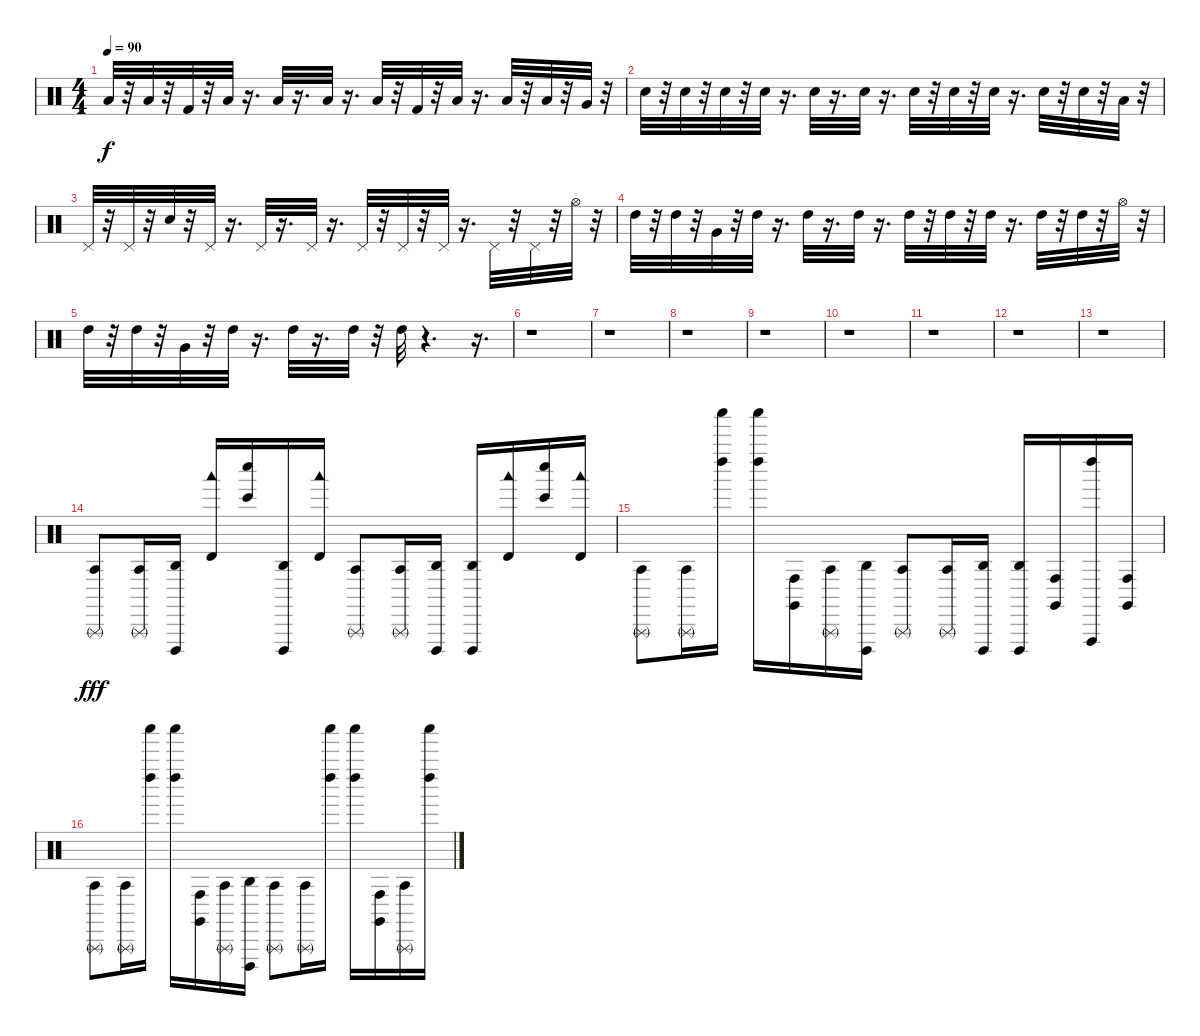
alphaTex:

\track "" {instrument percussion}
\staff {score}
\articulation defaults
\ts (4 4)
\tempo 90
\clef neutral
\ks c "Low Floor Tom (hit)".32{dy f}
r.32 "Low Floor Tom (hit)".32 r.32 "Kick (hit) 2".32 r.32 "Low Floor Tom (hit)".32 r.16{d} "Low Floor Tom (hit)".32 r.16{d} "Low Floor Tom (hit)".32 r.16{d} "Low Floor Tom (hit)".32 r.32 "Kick (hit) 2".32 r.32 "Low Floor Tom (hit)".32 r.16{d} "Low Floor Tom (hit)".32 r.32 "Low Floor Tom (hit)".32 r.32 "Very Low Tom (hit)".32 r.32 |
"Hand Clap (hit)".32 r.32 "Hand Clap (hit)".32 r.32 "Metronome (bell)".32 r.32 "Hand Clap (hit)".32 r.16{d} "Hand Clap (hit)".32 r.16{d} "Hand Clap (hit)".32 r.16{d} "Hand Clap (hit)".32 r.32 "Hand Clap (hit)".32 r.32 "Hand Clap (hit)".32 r.16{d} "Hand Clap (hit)".32 r.32 "Hand Clap (hit)".32 r.32 "Low Floor Tom (hit)".32 r.32 |
"Pedal Hi-Hat (hit)".32 r.32 "Pedal Hi-Hat (hit)".32 r.32 "Hand Clap (hit)".32 r.32 "Pedal Hi-Hat (hit)".32 r.16{d} "Pedal Hi-Hat (hit)".32 r.16{d} "Pedal Hi-Hat (hit)".32 r.16{d} "Pedal Hi-Hat (hit)".32 r.32 "Pedal Hi-Hat (hit)".32 r.32 "Pedal Hi-Hat (hit)".32 r.16{d} "Pedal Hi-Hat (hit)".32 r.32 "Pedal Hi-Hat (hit)".32 r.32 "Hi-Hat (open)".32 r.32 |
"High Tom (hit)".32 r.32 "High Tom (hit)".32 r.32 "Very Low Tom (hit)".32 r.32 "High Tom (hit)".32 r.16{d} "High Tom (hit)".32 r.16{d} "High Tom (hit)".32 r.16{d} "High Tom (hit)".32 r.32 "High Tom (hit)".32 r.32 "High Tom (hit)".32 r.16{d} "High Tom (hit)".32 r.32 "High Tom (hit)".32 r.32 "Hi-Hat (open)".32 r.32 |
"High Tom (hit)".32 r.32 "High Tom (hit)".32 r.32 "Very Low Tom (hit)".32 r.32 "High Tom (hit)".32 r.16{d} "High Tom (hit)".32 r.16{d} "High Tom (hit)".32 r.32 "High Tom (hit)".32 r.4{d} r.16{d} |
r.1 |
r.1 |
r.1 |
r.1 |
r.1 |
r.1 |
r.1 |
r.1 |
("Agogo tow (hit)" "Triangle (rnute)").8{dy fff} ("Agogo tow (hit)" "Triangle (rnute)").16 ("Agogo high (hit)" "Cuica (open)").16 ("Timbale high (hit)" "Woodblock low (hit)").16 ("Bongo High (hit)" "Whistle low (hit)").16 ("Agogo high (hit)" "Cuica (open)").16 ("Timbale high (hit)" "Woodblock low (hit)").16 ("Agogo tow (hit)" "Triangle (rnute)").8 ("Agogo tow (hit)" "Triangle (rnute)").16 ("Agogo high (hit)" "Cuica (open)").16 ("Agogo high (hit)" "Cuica (open)").16 ("Timbale high (hit)" "Woodblock low (hit)").16 ("Bongo High (hit)" "Whistle low (hit)").16 ("Timbale high (hit)" "Woodblock low (hit)").16 |
("Agogo tow (hit)" "Triangle (rnute)").8 ("Agogo tow (hit)" "Triangle (rnute)").16 ("Left Maraca (hit)" "Shaker (hit)").16 ("Left Maraca (hit)" "Shaker (hit)").16 ("Conga high (hit)" "Claves (hit)").16 ("Agogo tow (hit)" "Triangle (rnute)").16 ("Agogo high (hit)" "Cuica (open)").16 ("Agogo tow (hit)" "Triangle (rnute)").8 ("Agogo tow (hit)" "Triangle (rnute)").16 ("Agogo high (hit)" "Cuica (open)").16 ("Agogo high (hit)" "Cuica (open)").16 ("Conga high (hit)" "Claves (hit)").16 ("Vibraslap (hit)" "Left Maraca (hit)").16 ("Conga high (hit)" "Claves (hit)").16 |
("Agogo tow (hit)" "Triangle (rnute)").8 ("Agogo tow (hit)" "Triangle (rnute)").16 ("Left Maraca (hit)" "Shaker (hit)").16 ("Left Maraca (hit)" "Shaker (hit)").16 ("Conga high (hit)" "Claves (hit)").16 ("Agogo tow (hit)" "Triangle (rnute)").16 ("Agogo high (hit)" "Cuica (open)").16 ("Agogo tow (hit)" "Triangle (rnute)").8 ("Agogo tow (hit)" "Triangle (rnute)").16 ("Left Maraca (hit)" "Shaker (hit)").16 ("Left Maraca (hit)" "Shaker (hit)").16 ("Conga high (hit)" "Claves (hit)").16 ("Agogo tow (hit)" "Triangle (rnute)").16 ("Left Maraca (hit)" "Shaker (hit)").16
